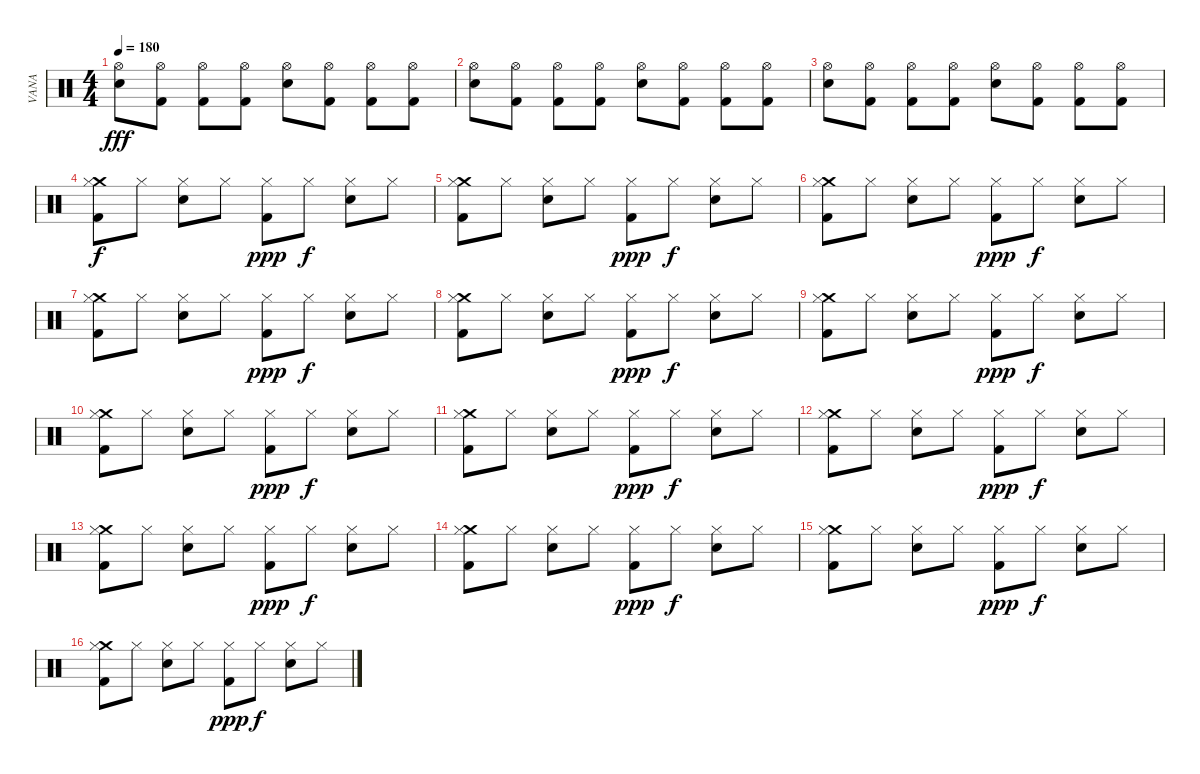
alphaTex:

\track ("VANA" "VANA") {instrument percussion}
\staff {score}
\articulation defaults
\ts (4 4)
\tempo 180
\clef neutral
\ks c
("Hi-Hat (open)" "Electric Snare (hit)").8{dy fff} ("Hi-Hat (open)" "Kick (hit) 2").8 ("Hi-Hat (open)" "Kick (hit) 2").8 ("Hi-Hat (open)" "Kick (hit) 2").8 ("Hi-Hat (open)" "Electric Snare (hit)").8 ("Hi-Hat (open)" "Kick (hit) 2").8 ("Hi-Hat (open)" "Kick (hit) 2").8 ("Hi-Hat (open)" "Kick (hit) 2").8 |
("Hi-Hat (open)" "Electric Snare (hit)").8 ("Hi-Hat (open)" "Kick (hit) 2").8 ("Hi-Hat (open)" "Kick (hit) 2").8 ("Hi-Hat (open)" "Kick (hit) 2").8 ("Hi-Hat (open)" "Electric Snare (hit)").8 ("Hi-Hat (open)" "Kick (hit) 2").8 ("Hi-Hat (open)" "Kick (hit) 2").8 ("Hi-Hat (open)" "Kick (hit) 2").8 |
("Hi-Hat (open)" "Electric Snare (hit)").8 ("Hi-Hat (open)" "Kick (hit) 2").8 ("Hi-Hat (open)" "Kick (hit) 2").8 ("Hi-Hat (open)" "Kick (hit) 2").8 ("Hi-Hat (open)" "Electric Snare (hit)").8 ("Hi-Hat (open)" "Kick (hit) 2").8 ("Hi-Hat (open)" "Kick (hit) 2").8 ("Hi-Hat (open)" "Kick (hit) 2").8 |
("Crash medium (hit)" "Hi-Hat (closed)" "Kick (hit) 2").8{dy f} "Hi-Hat (closed)".8 ("Hi-Hat (closed)" "Electric Snare (hit)").8 "Hi-Hat (closed)".8 ("Hi-Hat (closed)" "Kick (hit) 2").8{dy ppp} "Hi-Hat (closed)".8{dy f} ("Hi-Hat (closed)" "Electric Snare (hit)").8 "Hi-Hat (closed)".8 |
("Crash medium (hit)" "Hi-Hat (closed)" "Kick (hit) 2").8 "Hi-Hat (closed)".8 ("Hi-Hat (closed)" "Electric Snare (hit)").8 "Hi-Hat (closed)".8 ("Hi-Hat (closed)" "Kick (hit) 2").8{dy ppp} "Hi-Hat (closed)".8{dy f} ("Hi-Hat (closed)" "Electric Snare (hit)").8 "Hi-Hat (closed)".8 |
("Crash medium (hit)" "Hi-Hat (closed)" "Kick (hit) 2").8 "Hi-Hat (closed)".8 ("Hi-Hat (closed)" "Electric Snare (hit)").8 "Hi-Hat (closed)".8 ("Hi-Hat (closed)" "Kick (hit) 2").8{dy ppp} "Hi-Hat (closed)".8{dy f} ("Hi-Hat (closed)" "Electric Snare (hit)").8 "Hi-Hat (closed)".8 |
("Crash medium (hit)" "Hi-Hat (closed)" "Kick (hit) 2").8 "Hi-Hat (closed)".8 ("Hi-Hat (closed)" "Electric Snare (hit)").8 "Hi-Hat (closed)".8 ("Hi-Hat (closed)" "Kick (hit) 2").8{dy ppp} "Hi-Hat (closed)".8{dy f} ("Hi-Hat (closed)" "Electric Snare (hit)").8 "Hi-Hat (closed)".8 |
("Crash medium (hit)" "Hi-Hat (closed)" "Kick (hit) 2").8 "Hi-Hat (closed)".8 ("Hi-Hat (closed)" "Electric Snare (hit)").8 "Hi-Hat (closed)".8 ("Hi-Hat (closed)" "Kick (hit) 2").8{dy ppp} "Hi-Hat (closed)".8{dy f} ("Hi-Hat (closed)" "Electric Snare (hit)").8 "Hi-Hat (closed)".8 |
("Crash medium (hit)" "Hi-Hat (closed)" "Kick (hit) 2").8 "Hi-Hat (closed)".8 ("Hi-Hat (closed)" "Electric Snare (hit)").8 "Hi-Hat (closed)".8 ("Hi-Hat (closed)" "Kick (hit) 2").8{dy ppp} "Hi-Hat (closed)".8{dy f} ("Hi-Hat (closed)" "Electric Snare (hit)").8 "Hi-Hat (closed)".8 |
("Crash medium (hit)" "Hi-Hat (closed)" "Kick (hit) 2").8 "Hi-Hat (closed)".8 ("Hi-Hat (closed)" "Electric Snare (hit)").8 "Hi-Hat (closed)".8 ("Hi-Hat (closed)" "Kick (hit) 2").8{dy ppp} "Hi-Hat (closed)".8{dy f} ("Hi-Hat (closed)" "Electric Snare (hit)").8 "Hi-Hat (closed)".8 |
("Crash medium (hit)" "Hi-Hat (closed)" "Kick (hit) 2").8 "Hi-Hat (closed)".8 ("Hi-Hat (closed)" "Electric Snare (hit)").8 "Hi-Hat (closed)".8 ("Hi-Hat (closed)" "Kick (hit) 2").8{dy ppp} "Hi-Hat (closed)".8{dy f} ("Hi-Hat (closed)" "Electric Snare (hit)").8 "Hi-Hat (closed)".8 |
("Crash medium (hit)" "Hi-Hat (closed)" "Kick (hit) 2").8 "Hi-Hat (closed)".8 ("Hi-Hat (closed)" "Electric Snare (hit)").8 "Hi-Hat (closed)".8 ("Hi-Hat (closed)" "Kick (hit) 2").8{dy ppp} "Hi-Hat (closed)".8{dy f} ("Hi-Hat (closed)" "Electric Snare (hit)").8 "Hi-Hat (closed)".8 |
("Crash medium (hit)" "Hi-Hat (closed)" "Kick (hit) 2").8 "Hi-Hat (closed)".8 ("Hi-Hat (closed)" "Electric Snare (hit)").8 "Hi-Hat (closed)".8 ("Hi-Hat (closed)" "Kick (hit) 2").8{dy ppp} "Hi-Hat (closed)".8{dy f} ("Hi-Hat (closed)" "Electric Snare (hit)").8 "Hi-Hat (closed)".8 |
("Crash medium (hit)" "Hi-Hat (closed)" "Kick (hit) 2").8 "Hi-Hat (closed)".8 ("Hi-Hat (closed)" "Electric Snare (hit)").8 "Hi-Hat (closed)".8 ("Hi-Hat (closed)" "Kick (hit) 2").8{dy ppp} "Hi-Hat (closed)".8{dy f} ("Hi-Hat (closed)" "Electric Snare (hit)").8 "Hi-Hat (closed)".8 |
("Crash medium (hit)" "Hi-Hat (closed)" "Kick (hit) 2").8 "Hi-Hat (closed)".8 ("Hi-Hat (closed)" "Electric Snare (hit)").8 "Hi-Hat (closed)".8 ("Hi-Hat (closed)" "Kick (hit) 2").8{dy ppp} "Hi-Hat (closed)".8{dy f} ("Hi-Hat (closed)" "Electric Snare (hit)").8 "Hi-Hat (closed)".8 |
("Crash medium (hit)" "Hi-Hat (closed)" "Kick (hit) 2").8 "Hi-Hat (closed)".8 ("Hi-Hat (closed)" "Electric Snare (hit)").8 "Hi-Hat (closed)".8 ("Hi-Hat (closed)" "Kick (hit) 2").8{dy ppp} "Hi-Hat (closed)".8{dy f} ("Hi-Hat (closed)" "Electric Snare (hit)").8 "Hi-Hat (closed)".8
